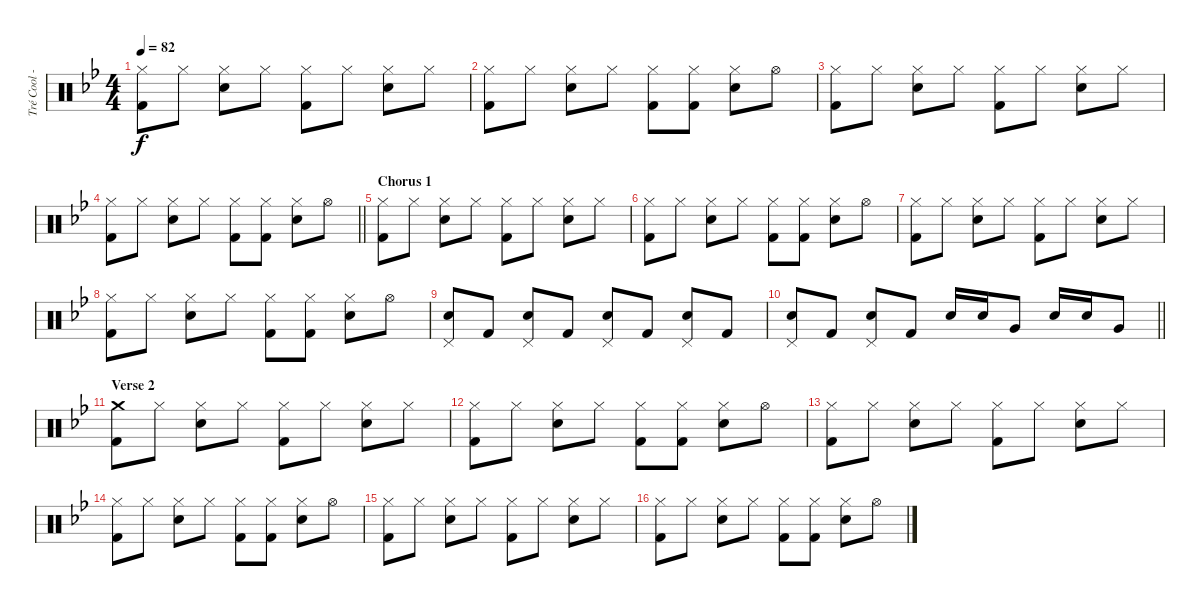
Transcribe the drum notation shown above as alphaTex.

\track ("Tré Cool - Drums" "Tré Cool -") {instrument percussion}
\staff {score}
\articulation defaults
\ts (4 4)
\tempo 82
\clef neutral
\ks gminor
("Hi-Hat (closed)" "Kick (hit) 2").8{dy f} "Hi-Hat (closed)".8 ("Hi-Hat (closed)" "Electric Snare (hit)").8 "Hi-Hat (closed)".8 ("Hi-Hat (closed)" "Kick (hit) 2").8 "Hi-Hat (closed)".8 ("Hi-Hat (closed)" "Electric Snare (hit)").8 "Hi-Hat (closed)".8 |
("Hi-Hat (closed)" "Kick (hit) 2").8 "Hi-Hat (closed)".8 ("Hi-Hat (closed)" "Electric Snare (hit)").8 "Hi-Hat (closed)".8 ("Hi-Hat (closed)" "Kick (hit) 2").8 ("Hi-Hat (closed)" "Kick (hit) 2").8 ("Hi-Hat (closed)" "Electric Snare (hit)").8 "Hi-Hat (open)".8 |
("Hi-Hat (closed)" "Kick (hit) 2").8 "Hi-Hat (closed)".8 ("Hi-Hat (closed)" "Electric Snare (hit)").8 "Hi-Hat (closed)".8 ("Hi-Hat (closed)" "Kick (hit) 2").8 "Hi-Hat (closed)".8 ("Hi-Hat (closed)" "Electric Snare (hit)").8 "Hi-Hat (closed)".8 |
\barLineRight lightlight
("Hi-Hat (closed)" "Kick (hit) 2").8 "Hi-Hat (closed)".8 ("Hi-Hat (closed)" "Electric Snare (hit)").8 "Hi-Hat (closed)".8 ("Hi-Hat (closed)" "Kick (hit) 2").8 ("Hi-Hat (closed)" "Kick (hit) 2").8 ("Hi-Hat (closed)" "Electric Snare (hit)").8 "Hi-Hat (open)".8 |
\section ("" "Chorus 1")
("Hi-Hat (closed)" "Kick (hit) 2").8 "Hi-Hat (closed)".8 ("Hi-Hat (closed)" "Electric Snare (hit)").8 "Hi-Hat (closed)".8 ("Hi-Hat (closed)" "Kick (hit) 2").8 "Hi-Hat (closed)".8 ("Hi-Hat (closed)" "Electric Snare (hit)").8 "Hi-Hat (closed)".8 |
("Hi-Hat (closed)" "Kick (hit) 2").8 "Hi-Hat (closed)".8 ("Hi-Hat (closed)" "Electric Snare (hit)").8 "Hi-Hat (closed)".8 ("Hi-Hat (closed)" "Kick (hit) 2").8 ("Hi-Hat (closed)" "Kick (hit) 2").8 ("Hi-Hat (closed)" "Electric Snare (hit)").8 "Hi-Hat (open)".8 |
("Hi-Hat (closed)" "Kick (hit) 2").8 "Hi-Hat (closed)".8 ("Hi-Hat (closed)" "Electric Snare (hit)").8 "Hi-Hat (closed)".8 ("Hi-Hat (closed)" "Kick (hit) 2").8 "Hi-Hat (closed)".8 ("Hi-Hat (closed)" "Electric Snare (hit)").8 "Hi-Hat (closed)".8 |
("Hi-Hat (closed)" "Kick (hit) 2").8 "Hi-Hat (closed)".8 ("Hi-Hat (closed)" "Electric Snare (hit)").8 "Hi-Hat (closed)".8 ("Hi-Hat (closed)" "Kick (hit) 2").8 ("Hi-Hat (closed)" "Kick (hit) 2").8 ("Hi-Hat (closed)" "Electric Snare (hit)").8 "Hi-Hat (open)".8 |
("Pedal Hi-Hat (hit)" "Electric Snare (hit)").8 "Kick (hit) 2".8 ("Pedal Hi-Hat (hit)" "Electric Snare (hit)").8 "Kick (hit) 2".8 ("Pedal Hi-Hat (hit)" "Electric Snare (hit)").8 "Kick (hit) 2".8 ("Pedal Hi-Hat (hit)" "Electric Snare (hit)").8 "Kick (hit) 2".8 |
\barLineRight lightlight
("Pedal Hi-Hat (hit)" "Electric Snare (hit)").8 "Kick (hit) 2".8 ("Pedal Hi-Hat (hit)" "Electric Snare (hit)").8 "Kick (hit) 2".8 "Electric Snare (hit)".16 "Electric Snare (hit)".16 "Very Low Tom (hit)".8 "Electric Snare (hit)".16 "Electric Snare (hit)".16 "Very Low Tom (hit)".8 |
\section ("" "Verse 2")
("Crash medium (hit)" "Kick (hit) 2").8 "Hi-Hat (closed)".8 ("Hi-Hat (closed)" "Electric Snare (hit)").8 "Hi-Hat (closed)".8 ("Hi-Hat (closed)" "Kick (hit) 2").8 "Hi-Hat (closed)".8 ("Hi-Hat (closed)" "Electric Snare (hit)").8 "Hi-Hat (closed)".8 |
("Hi-Hat (closed)" "Kick (hit) 2").8 "Hi-Hat (closed)".8 ("Hi-Hat (closed)" "Electric Snare (hit)").8 "Hi-Hat (closed)".8 ("Hi-Hat (closed)" "Kick (hit) 2").8 ("Hi-Hat (closed)" "Kick (hit) 2").8 ("Hi-Hat (closed)" "Electric Snare (hit)").8 "Hi-Hat (open)".8 |
("Hi-Hat (closed)" "Kick (hit) 2").8 "Hi-Hat (closed)".8 ("Hi-Hat (closed)" "Electric Snare (hit)").8 "Hi-Hat (closed)".8 ("Hi-Hat (closed)" "Kick (hit) 2").8 "Hi-Hat (closed)".8 ("Hi-Hat (closed)" "Electric Snare (hit)").8 "Hi-Hat (closed)".8 |
("Hi-Hat (closed)" "Kick (hit) 2").8 "Hi-Hat (closed)".8 ("Hi-Hat (closed)" "Electric Snare (hit)").8 "Hi-Hat (closed)".8 ("Hi-Hat (closed)" "Kick (hit) 2").8 ("Hi-Hat (closed)" "Kick (hit) 2").8 ("Hi-Hat (closed)" "Electric Snare (hit)").8 "Hi-Hat (open)".8 |
("Hi-Hat (closed)" "Kick (hit) 2").8 "Hi-Hat (closed)".8 ("Hi-Hat (closed)" "Electric Snare (hit)").8 "Hi-Hat (closed)".8 ("Hi-Hat (closed)" "Kick (hit) 2").8 "Hi-Hat (closed)".8 ("Hi-Hat (closed)" "Electric Snare (hit)").8 "Hi-Hat (closed)".8 |
("Hi-Hat (closed)" "Kick (hit) 2").8 "Hi-Hat (closed)".8 ("Hi-Hat (closed)" "Electric Snare (hit)").8 "Hi-Hat (closed)".8 ("Hi-Hat (closed)" "Kick (hit) 2").8 ("Hi-Hat (closed)" "Kick (hit) 2").8 ("Hi-Hat (closed)" "Electric Snare (hit)").8 "Hi-Hat (open)".8
